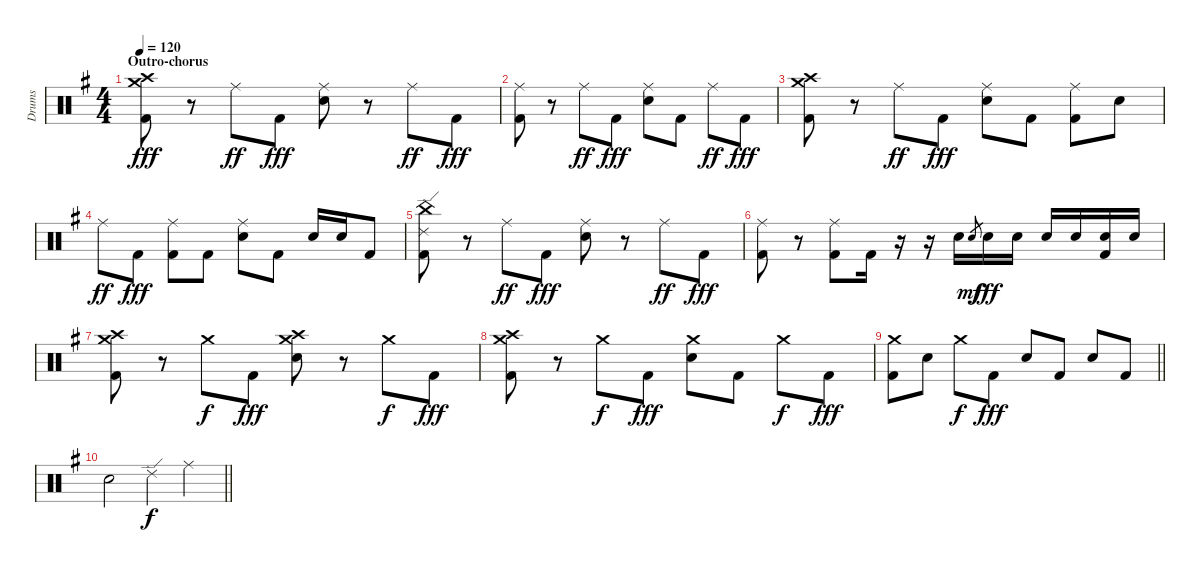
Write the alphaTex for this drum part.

\track ("Drums" "Drums") {instrument percussion}
\staff {score}
\articulation defaults
\ts (4 4)
\section ("" "Outro-chorus")
\tempo 120
\clef neutral
\ks g
("Crash medium (hit)" "Crash high (hit)" "Kick (hit) 2").8{dy fff} r.8 "Ride (middle)".8{dy ff} "Kick (hit) 2".8{dy fff} ("Ride (middle)" "Electric Snare (hit)").8 r.8 "Ride (middle)".8{dy ff} "Kick (hit) 2".8{dy fff} |
("Ride (middle)" "Kick (hit) 2").8 r.8 "Ride (middle)".8{dy ff} "Kick (hit) 2".8{dy fff} ("Ride (middle)" "Electric Snare (hit)").8 "Kick (hit) 2".8 "Ride (middle)".8{dy ff} "Kick (hit) 2".8{dy fff} |
("Crash medium (hit)" "Crash high (hit)" "Kick (hit) 2").8 r.8 "Ride (middle)".8{dy ff} "Kick (hit) 2".8{dy fff} ("Ride (middle)" "Electric Snare (hit)").8 "Kick (hit) 2".8 ("Ride (middle)" "Kick (hit) 2").8 "Electric Snare (hit)".8 |
"Ride (middle)".8{dy ff} "Kick (hit) 2".8{dy fff} ("Ride (middle)" "Kick (hit) 2").8 "Kick (hit) 2".8 ("Ride (middle)" "Electric Snare (hit)").8 "Kick (hit) 2".8 "Electric Snare (hit)".16 "Electric Snare (hit)".16 "Kick (hit) 2".8 |
("Ride (edge) 2" "China (hit)" "Kick (hit) 2").8 r.8 "Ride (middle)".8{dy ff} "Kick (hit) 2".8{dy fff} ("Ride (middle)" "Electric Snare (hit)").8 r.8 "Ride (middle)".8{dy ff} "Kick (hit) 2".8{dy fff} |
("Ride (middle)" "Kick (hit) 2").8 r.8 ("Ride (middle)" "Kick (hit) 2").8 "Kick (hit) 2".16 r.16 r.16 "Electric Snare (hit)".16 "Electric Snare (hit)".8{gr dy mf} "Electric Snare (hit)".16{dy fff} "Electric Snare (hit)".16 "Electric Snare (hit)".16 "Electric Snare (hit)".16 ("Electric Snare (hit)" "Kick (hit) 2").16 "Electric Snare (hit)".16 |
("Crash medium (hit)" "Crash high (hit)" "Kick (hit) 2").8 r.8 "Crash medium (hit)".8{dy f} "Kick (hit) 2".8{dy fff} ("Crash medium (hit)" "Crash high (hit)" "Electric Snare (hit)").8 r.8 "Crash medium (hit)".8{dy f} "Kick (hit) 2".8{dy fff} |
("Crash medium (hit)" "Crash high (hit)" "Kick (hit) 2").8 r.8 "Crash medium (hit)".8{dy f} "Kick (hit) 2".8{dy fff} ("Crash medium (hit)" "Electric Snare (hit)").8 "Kick (hit) 2".8 "Crash medium (hit)".8{dy f} "Kick (hit) 2".8{dy fff} |
\barLineRight lightlight
("Crash medium (hit)" "Kick (hit) 2").8 "Electric Snare (hit)".8 "Crash medium (hit)".8{dy f} "Kick (hit) 2".8{dy fff} "Electric Snare (hit)".8 "Kick (hit) 2".8 "Electric Snare (hit)".8 "Kick (hit) 2".8 |
\barLineRight lightlight "Electric Snare (hit)".2 "Ride (edge) 2".4{dy f} "Ride (middle)".4
